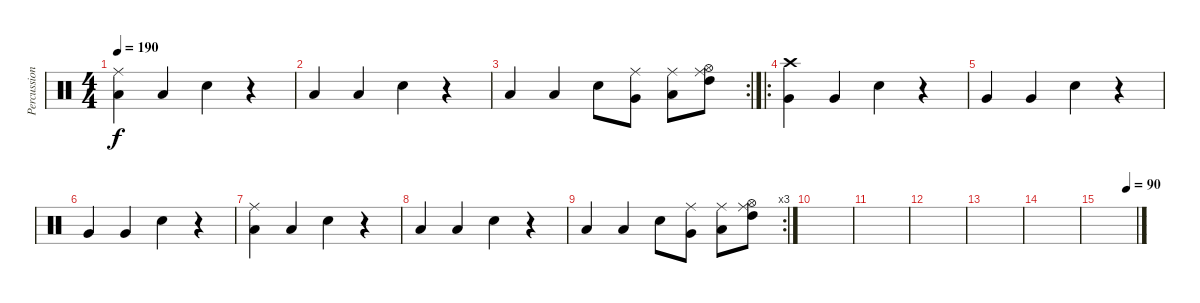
\track ("Percussion" "Percussion") {instrument percussion}
\staff {score}
\articulation defaults
\ts (4 4)
\tempo 190
\clef neutral
\ks c
("Low Floor Tom (hit)" "Ride (middle)").4{dy f} "Low Floor Tom (hit)".4 "Snare (hit) 2".4 r.4 |
"Low Floor Tom (hit)".4 "Low Floor Tom (hit)".4 "Snare (hit) 2".4 r.4 |
\rc 2 "Low Floor Tom (hit)".4 "Low Floor Tom (hit)".4 "Snare (hit) 2".8
("Very Low Tom (hit)" "Ride (middle)").8 ("Low Tom (hit)" "Ride (middle)").8 ("High Tom (hit)" "Hi-Hat (open)" "Ride (middle)").8 |
\ro
("Crash high (hit)" "Very Low Tom (hit)").4 "Very Low Tom (hit)".4 "Snare (hit) 2".4 r.4 |
"Very Low Tom (hit)".4 "Very Low Tom (hit)".4 "Snare (hit) 2".4 r.4 |
"Very Low Tom (hit)".4 "Very Low Tom (hit)".4 "Snare (hit) 2".4 r.4 |
("Low Floor Tom (hit)" "Ride (middle)").4 "Low Floor Tom (hit)".4 "Snare (hit) 2".4 r.4 |
"Low Floor Tom (hit)".4 "Low Floor Tom (hit)".4 "Snare (hit) 2".4 r.4 |
\rc 3 "Low Floor Tom (hit)".4 "Low Floor Tom (hit)".4 "Snare (hit) 2".8
("Very Low Tom (hit)" "Ride (middle)").8 ("Low Tom (hit)" "Ride (middle)").8 ("High Tom (hit)" "Hi-Hat (open)" "Ride (middle)").8 |
|
|
|
|
|
\tempo (90 0.75)
